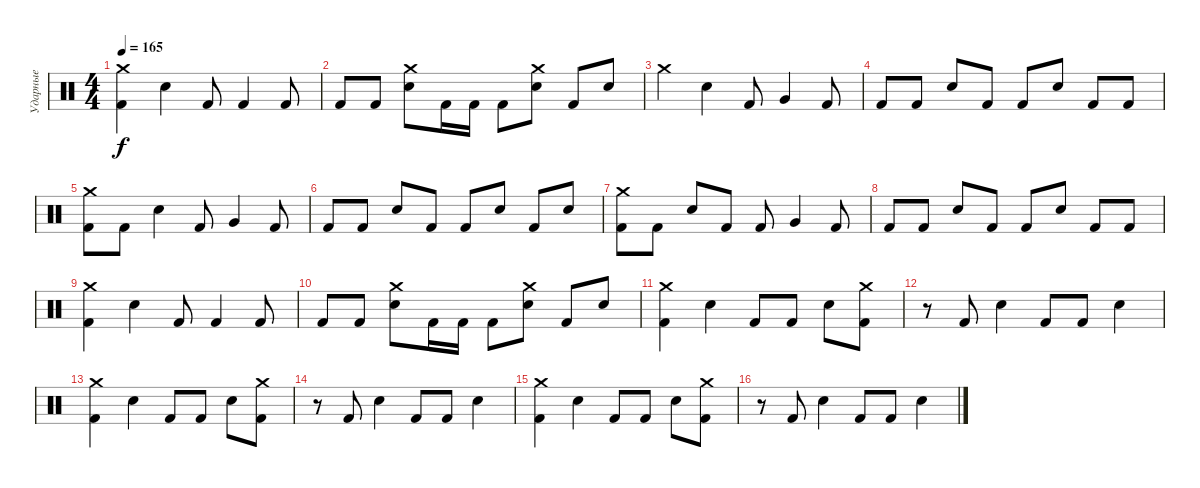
\track ("Ударные" "Ударные") {instrument percussion}
\staff {score}
\articulation defaults
\ts (4 4)
\tempo 165
\clef neutral
\ks c
("Crash medium (hit)" "Kick (hit) 2").4{dy f} "Snare (hit) 2".4 "Kick (hit) 2".8 "Kick (hit) 2".4 "Kick (hit) 2".8 |
"Kick (hit) 2".8 "Kick (hit) 2".8 ("Crash medium (hit)" "Snare (hit) 2").8 "Kick (hit) 2".16 "Kick (hit) 2".16 "Kick (hit) 2".8 ("Crash medium (hit)" "Snare (hit) 2").8 "Kick (hit) 2".8 "Snare (hit) 2".8 |
"Crash medium (hit)".4 "Snare (hit) 2".4 "Kick (hit) 2".8 "Very Low Tom (hit)".4 "Kick (hit) 2".8 |
"Kick (hit) 2".8 "Kick (hit) 2".8 "Snare (hit) 2".8 "Kick (hit) 2".8 "Kick (hit) 2".8 "Snare (hit) 2".8 "Kick (hit) 2".8 "Kick (hit) 2".8 |
("Crash medium (hit)" "Kick (hit) 2").8 "Kick (hit) 2".8 "Snare (hit) 2".4 "Kick (hit) 2".8 "Very Low Tom (hit)".4 "Kick (hit) 2".8 |
"Kick (hit) 2".8 "Kick (hit) 2".8 "Snare (hit) 2".8 "Kick (hit) 2".8 "Kick (hit) 2".8 "Snare (hit) 2".8 "Kick (hit) 2".8 "Snare (hit) 2".8 |
("Crash medium (hit)" "Kick (hit) 2").8 "Kick (hit) 2".8 "Snare (hit) 2".8 "Kick (hit) 2".8 "Kick (hit) 2".8 "Very Low Tom (hit)".4 "Kick (hit) 2".8 |
"Kick (hit) 2".8 "Kick (hit) 2".8 "Snare (hit) 2".8 "Kick (hit) 2".8 "Kick (hit) 2".8 "Snare (hit) 2".8 "Kick (hit) 2".8 "Kick (hit) 2".8 |
("Crash medium (hit)" "Kick (hit) 2").4 "Snare (hit) 2".4 "Kick (hit) 2".8 "Kick (hit) 2".4 "Kick (hit) 2".8 |
"Kick (hit) 2".8 "Kick (hit) 2".8 ("Crash medium (hit)" "Snare (hit) 2").8 "Kick (hit) 2".16 "Kick (hit) 2".16 "Kick (hit) 2".8 ("Crash medium (hit)" "Snare (hit) 2").8 "Kick (hit) 2".8 "Snare (hit) 2".8 |
("Crash medium (hit)" "Kick (hit) 2").4 "Snare (hit) 2".4 "Kick (hit) 2".8 "Kick (hit) 2".8 "Snare (hit) 2".8 ("Crash medium (hit)" "Kick (hit) 2").8 |
r.8 "Kick (hit) 2".8 "Snare (hit) 2".4 "Kick (hit) 2".8 "Kick (hit) 2".8 "Snare (hit) 2".4 |
("Crash medium (hit)" "Kick (hit) 2").4 "Snare (hit) 2".4 "Kick (hit) 2".8 "Kick (hit) 2".8 "Snare (hit) 2".8 ("Crash medium (hit)" "Kick (hit) 2").8 |
r.8 "Kick (hit) 2".8 "Snare (hit) 2".4 "Kick (hit) 2".8 "Kick (hit) 2".8 "Snare (hit) 2".4 |
("Crash medium (hit)" "Kick (hit) 2").4 "Snare (hit) 2".4 "Kick (hit) 2".8 "Kick (hit) 2".8 "Snare (hit) 2".8 ("Crash medium (hit)" "Kick (hit) 2").8 |
r.8 "Kick (hit) 2".8 "Snare (hit) 2".4 "Kick (hit) 2".8 "Kick (hit) 2".8 "Snare (hit) 2".4
